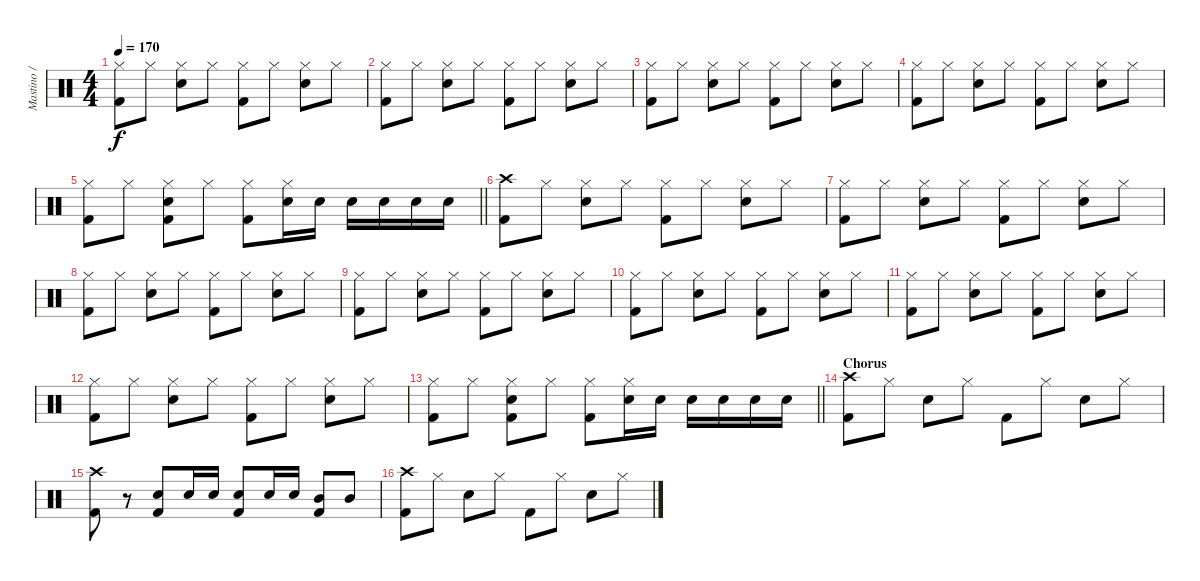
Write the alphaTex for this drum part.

\track ("Mastino / Drums" "Mastino / ") {instrument percussion}
\staff {score}
\articulation defaults
\ts (4 4)
\tempo 170
\clef neutral
\ks c
("Hi-Hat (closed)" "Kick (hit) 2").8{dy f} "Hi-Hat (closed)".8 ("Hi-Hat (closed)" "Electric Snare (hit)").8 "Hi-Hat (closed)".8 ("Hi-Hat (closed)" "Kick (hit) 2").8 "Hi-Hat (closed)".8 ("Hi-Hat (closed)" "Electric Snare (hit)").8 "Hi-Hat (closed)".8 |
("Hi-Hat (closed)" "Kick (hit) 2").8 "Hi-Hat (closed)".8 ("Hi-Hat (closed)" "Electric Snare (hit)").8 "Hi-Hat (closed)".8 ("Hi-Hat (closed)" "Kick (hit) 2").8 "Hi-Hat (closed)".8 ("Hi-Hat (closed)" "Electric Snare (hit)").8 "Hi-Hat (closed)".8 |
("Hi-Hat (closed)" "Kick (hit) 2").8 "Hi-Hat (closed)".8 ("Hi-Hat (closed)" "Electric Snare (hit)").8 "Hi-Hat (closed)".8 ("Hi-Hat (closed)" "Kick (hit) 2").8 "Hi-Hat (closed)".8 ("Hi-Hat (closed)" "Electric Snare (hit)").8 "Hi-Hat (closed)".8 |
("Hi-Hat (closed)" "Kick (hit) 2").8 "Hi-Hat (closed)".8 ("Hi-Hat (closed)" "Electric Snare (hit)").8 "Hi-Hat (closed)".8 ("Hi-Hat (closed)" "Kick (hit) 2").8 "Hi-Hat (closed)".8 ("Hi-Hat (closed)" "Electric Snare (hit)").8 "Hi-Hat (closed)".8 |
\barLineRight lightlight
("Hi-Hat (closed)" "Kick (hit) 2").8 "Hi-Hat (closed)".8 ("Hi-Hat (closed)" "Electric Snare (hit)" "Kick (hit) 2").8 "Hi-Hat (closed)".8 ("Hi-Hat (closed)" "Kick (hit) 2").8 ("Hi-Hat (closed)" "Electric Snare (hit)").16 "Electric Snare (hit)".16 "Electric Snare (hit)".16 "Electric Snare (hit)".16 "Electric Snare (hit)".16 "Electric Snare (hit)".16 |
("Crash high (hit)" "Kick (hit) 2").8 "Hi-Hat (closed)".8 ("Hi-Hat (closed)" "Electric Snare (hit)").8 "Hi-Hat (closed)".8 ("Hi-Hat (closed)" "Kick (hit) 2").8 "Hi-Hat (closed)".8 ("Hi-Hat (closed)" "Electric Snare (hit)").8 "Hi-Hat (closed)".8 |
("Hi-Hat (closed)" "Kick (hit) 2").8 "Hi-Hat (closed)".8 ("Hi-Hat (closed)" "Electric Snare (hit)").8 "Hi-Hat (closed)".8 ("Hi-Hat (closed)" "Kick (hit) 2").8 "Hi-Hat (closed)".8 ("Hi-Hat (closed)" "Electric Snare (hit)").8 "Hi-Hat (closed)".8 |
("Hi-Hat (closed)" "Kick (hit) 2").8 "Hi-Hat (closed)".8 ("Hi-Hat (closed)" "Electric Snare (hit)").8 "Hi-Hat (closed)".8 ("Hi-Hat (closed)" "Kick (hit) 2").8 "Hi-Hat (closed)".8 ("Hi-Hat (closed)" "Electric Snare (hit)").8 "Hi-Hat (closed)".8 |
("Hi-Hat (closed)" "Kick (hit) 2").8 "Hi-Hat (closed)".8 ("Hi-Hat (closed)" "Electric Snare (hit)").8 "Hi-Hat (closed)".8 ("Hi-Hat (closed)" "Kick (hit) 2").8 "Hi-Hat (closed)".8 ("Hi-Hat (closed)" "Electric Snare (hit)").8 "Hi-Hat (closed)".8 |
("Hi-Hat (closed)" "Kick (hit) 2").8 "Hi-Hat (closed)".8 ("Hi-Hat (closed)" "Electric Snare (hit)").8 "Hi-Hat (closed)".8 ("Hi-Hat (closed)" "Kick (hit) 2").8 "Hi-Hat (closed)".8 ("Hi-Hat (closed)" "Electric Snare (hit)").8 "Hi-Hat (closed)".8 |
("Hi-Hat (closed)" "Kick (hit) 2").8 "Hi-Hat (closed)".8 ("Hi-Hat (closed)" "Electric Snare (hit)").8 "Hi-Hat (closed)".8 ("Hi-Hat (closed)" "Kick (hit) 2").8 "Hi-Hat (closed)".8 ("Hi-Hat (closed)" "Electric Snare (hit)").8 "Hi-Hat (closed)".8 |
("Hi-Hat (closed)" "Kick (hit) 2").8 "Hi-Hat (closed)".8 ("Hi-Hat (closed)" "Electric Snare (hit)").8 "Hi-Hat (closed)".8 ("Hi-Hat (closed)" "Kick (hit) 2").8 "Hi-Hat (closed)".8 ("Hi-Hat (closed)" "Electric Snare (hit)").8 "Hi-Hat (closed)".8 |
\barLineRight lightlight
("Hi-Hat (closed)" "Kick (hit) 2").8 "Hi-Hat (closed)".8 ("Hi-Hat (closed)" "Electric Snare (hit)" "Kick (hit) 2").8 "Hi-Hat (closed)".8 ("Hi-Hat (closed)" "Kick (hit) 2").8 ("Hi-Hat (closed)" "Electric Snare (hit)").16 "Electric Snare (hit)".16 "Electric Snare (hit)".16 "Electric Snare (hit)".16 "Electric Snare (hit)".16 "Electric Snare (hit)".16 |
\section ("" "Chorus")
("Crash high (hit)" "Kick (hit) 2").8 "Hi-Hat (closed)".8 "Electric Snare (hit)".8 "Hi-Hat (closed)".8 "Kick (hit) 2".8 "Hi-Hat (closed)".8 "Electric Snare (hit)".8 "Hi-Hat (closed)".8 |
("Crash high (hit)" "Kick (hit) 2").8 r.8 ("Electric Snare (hit)" "Kick (hit) 2").8 "Electric Snare (hit)".16 "Electric Snare (hit)".16 ("Electric Snare (hit)" "Kick (hit) 2").8 "Electric Snare (hit)".16 "Electric Snare (hit)".16 ("Mid Tom (hit)" "Kick (hit) 2").8 "Mid Tom (hit)".8 |
("Crash high (hit)" "Kick (hit) 2").8 "Hi-Hat (closed)".8 "Electric Snare (hit)".8 "Hi-Hat (closed)".8 "Kick (hit) 2".8 "Hi-Hat (closed)".8 "Electric Snare (hit)".8 "Hi-Hat (closed)".8
